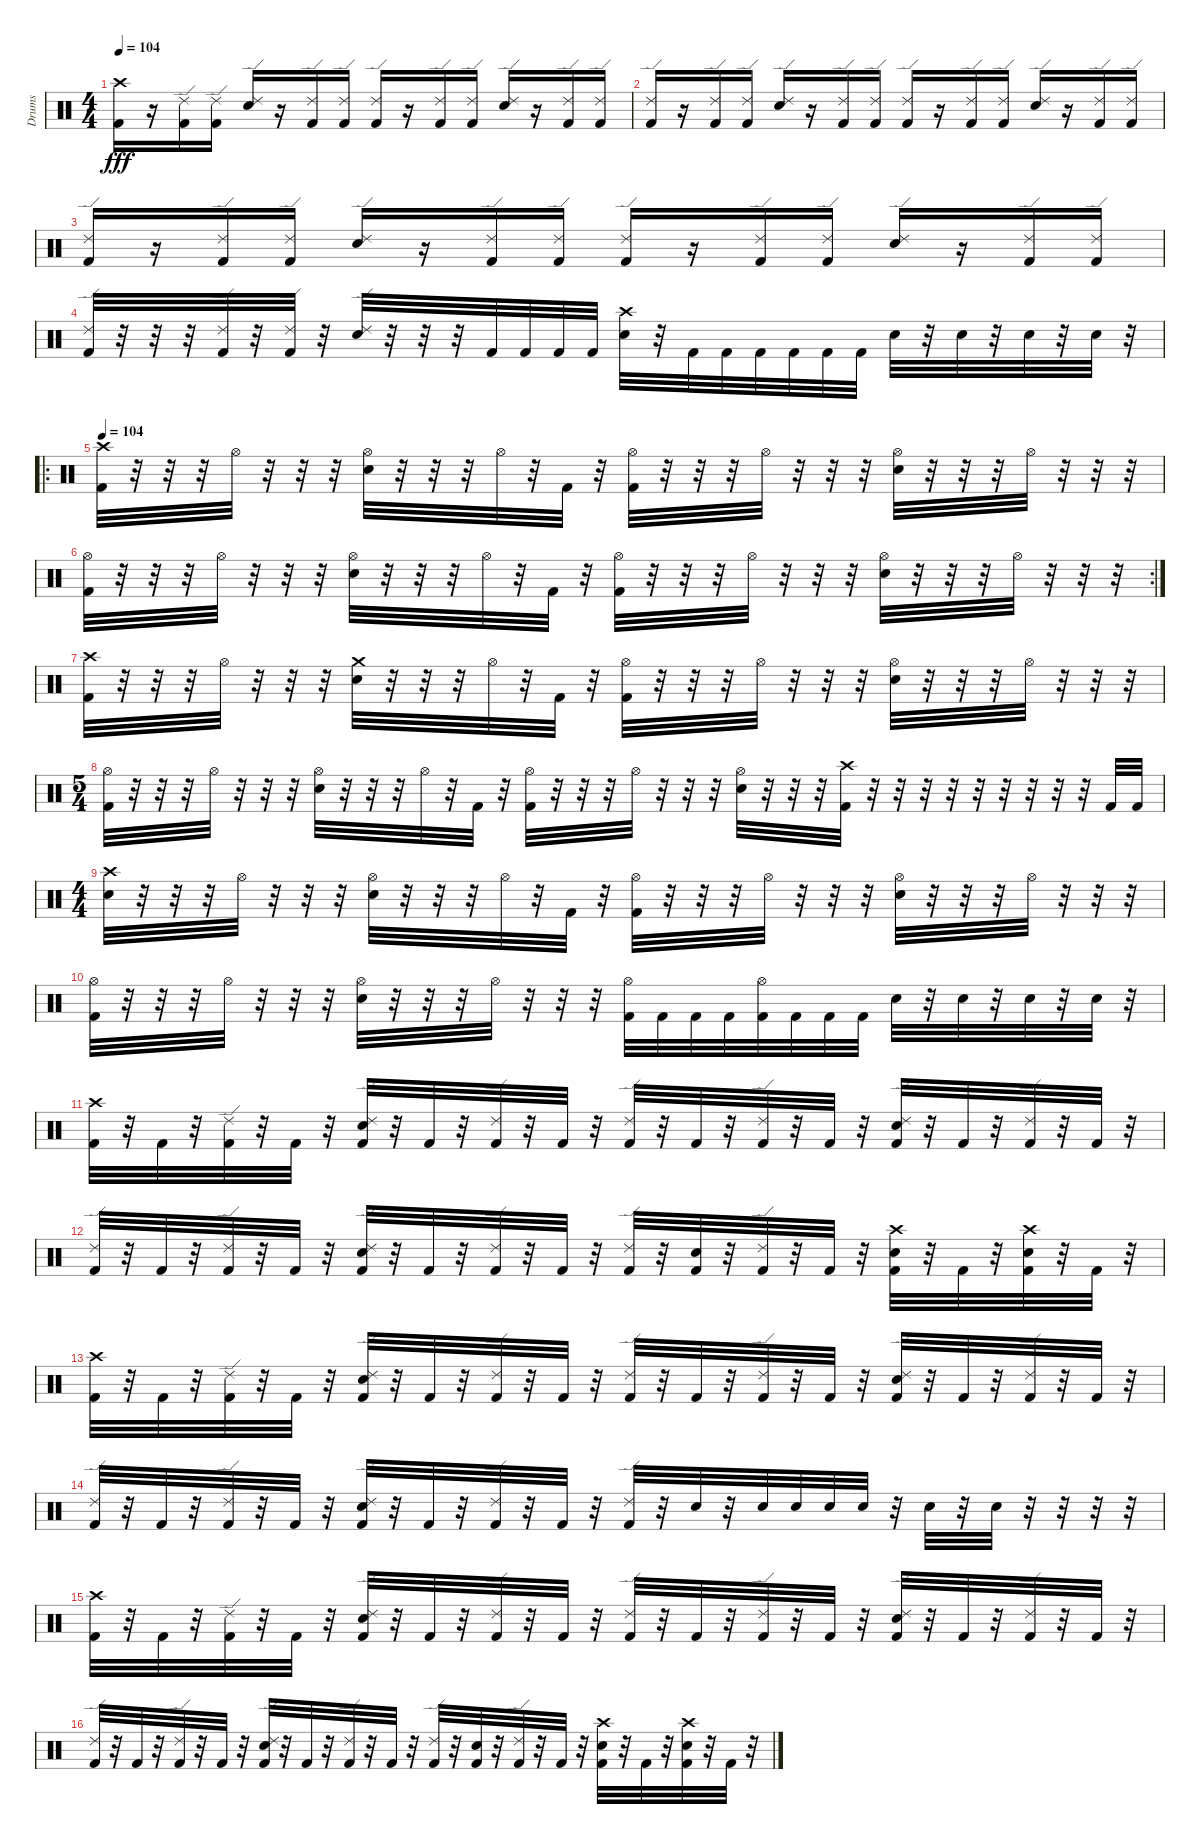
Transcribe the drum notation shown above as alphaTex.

\track ("Drums" "Drums") {instrument percussion}
\staff {score}
\articulation defaults
\ts (4 4)
\tempo 104
\clef neutral
\ks c
("Crash high (hit)" "Kick (hit) 2").16{dy fff} r.16 ("Ride (edge) 2" "Kick (hit) 2").16 ("Ride (edge) 2" "Kick (hit) 2").16 ("Ride (edge) 2" "Snare (hit) 2").16 r.16 ("Ride (edge) 2" "Kick (hit) 2").16 ("Ride (edge) 2" "Kick (hit) 2").16 ("Ride (edge) 2" "Kick (hit) 2").16 r.16 ("Ride (edge) 2" "Kick (hit) 2").16 ("Ride (edge) 2" "Kick (hit) 2").16 ("Ride (edge) 2" "Snare (hit) 2").16 r.16 ("Ride (edge) 2" "Kick (hit) 2").16 ("Ride (edge) 2" "Kick (hit) 2").16 |
("Ride (edge) 2" "Kick (hit) 2").16 r.16 ("Ride (edge) 2" "Kick (hit) 2").16 ("Ride (edge) 2" "Kick (hit) 2").16 ("Ride (edge) 2" "Snare (hit) 2").16 r.16 ("Ride (edge) 2" "Kick (hit) 2").16 ("Ride (edge) 2" "Kick (hit) 2").16 ("Ride (edge) 2" "Kick (hit) 2").16 r.16 ("Ride (edge) 2" "Kick (hit) 2").16 ("Ride (edge) 2" "Kick (hit) 2").16 ("Ride (edge) 2" "Snare (hit) 2").16 r.16 ("Ride (edge) 2" "Kick (hit) 2").16 ("Ride (edge) 2" "Kick (hit) 2").16 |
("Ride (edge) 2" "Kick (hit) 2").16 r.16 ("Ride (edge) 2" "Kick (hit) 2").16 ("Ride (edge) 2" "Kick (hit) 2").16 ("Ride (edge) 2" "Snare (hit) 2").16 r.16 ("Ride (edge) 2" "Kick (hit) 2").16 ("Ride (edge) 2" "Kick (hit) 2").16 ("Ride (edge) 2" "Kick (hit) 2").16 r.16 ("Ride (edge) 2" "Kick (hit) 2").16 ("Ride (edge) 2" "Kick (hit) 2").16 ("Ride (edge) 2" "Snare (hit) 2").16 r.16 ("Ride (edge) 2" "Kick (hit) 2").16 ("Ride (edge) 2" "Kick (hit) 2").16 |
("Ride (edge) 2" "Kick (hit) 2").32 r.32 r.32 r.32 ("Ride (edge) 2" "Kick (hit) 2").32 r.32 ("Ride (edge) 2" "Kick (hit) 2").32 r.32 ("Ride (edge) 2" "Snare (hit) 2").32 r.32 r.32 r.32 "Kick (hit) 2".32 "Kick (hit) 2".32 "Kick (hit) 2".32 "Kick (hit) 2".32 ("Crash high (hit)" "Snare (hit) 2").32 r.32 "Kick (hit) 2".32 "Kick (hit) 2".32 "Kick (hit) 2".32 "Kick (hit) 2".32 "Kick (hit) 2".32 "Kick (hit) 2".32 "Snare (hit) 2".32 r.32 "Snare (hit) 2".32 r.32 "Snare (hit) 2".32 r.32 "Snare (hit) 2".32 r.32 |
\ro
\tempo 104
("Crash high (hit)" "Kick (hit) 2").32 r.32 r.32 r.32 "Hi-Hat (open)".32 r.32 r.32 r.32 ("Hi-Hat (open)" "Snare (hit) 2").32 r.32 r.32 r.32 "Hi-Hat (open)".32 r.32 "Kick (hit) 2".32 r.32 ("Hi-Hat (open)" "Kick (hit) 2").32 r.32 r.32 r.32 "Hi-Hat (open)".32 r.32 r.32 r.32 ("Hi-Hat (open)" "Snare (hit) 2").32 r.32 r.32 r.32 "Hi-Hat (open)".32 r.32 r.32 r.32 |
\rc 2
("Hi-Hat (open)" "Kick (hit) 2").32 r.32 r.32 r.32 "Hi-Hat (open)".32 r.32 r.32 r.32 ("Hi-Hat (open)" "Snare (hit) 2").32 r.32 r.32 r.32 "Hi-Hat (open)".32 r.32 "Kick (hit) 2".32 r.32 ("Hi-Hat (open)" "Kick (hit) 2").32 r.32 r.32 r.32 "Hi-Hat (open)".32 r.32 r.32 r.32 ("Hi-Hat (open)" "Snare (hit) 2").32 r.32 r.32 r.32 "Hi-Hat (open)".32 r.32 r.32 r.32 |
("Crash high (hit)" "Kick (hit) 2").32 r.32 r.32 r.32 "Hi-Hat (open)".32 r.32 r.32 r.32 ("Crash medium (hit)" "Snare (hit) 2").32 r.32 r.32 r.32 "Hi-Hat (open)".32 r.32 "Kick (hit) 2".32 r.32 ("Hi-Hat (open)" "Kick (hit) 2").32 r.32 r.32 r.32 "Hi-Hat (open)".32 r.32 r.32 r.32 ("Hi-Hat (open)" "Snare (hit) 2").32 r.32 r.32 r.32 "Hi-Hat (open)".32 r.32 r.32 r.32 |
\ts (5 4)
("Hi-Hat (open)" "Kick (hit) 2").32 r.32 r.32 r.32 "Hi-Hat (open)".32 r.32 r.32 r.32 ("Hi-Hat (open)" "Snare (hit) 2").32 r.32 r.32 r.32 "Hi-Hat (open)".32 r.32 "Kick (hit) 2".32 r.32 ("Hi-Hat (open)" "Kick (hit) 2").32 r.32 r.32 r.32 "Hi-Hat (open)".32 r.32 r.32 r.32 ("Hi-Hat (open)" "Snare (hit) 2").32 r.32 r.32 r.32 ("Crash high (hit)" "Kick (hit) 2").32 r.32 r.32 r.32 r.32 r.32 r.32 r.32 r.32 r.32 "Kick (hit) 2".32 "Kick (hit) 2".32 |
\ts (4 4)
("Crash high (hit)" "Snare (hit) 2").32 r.32 r.32 r.32 "Hi-Hat (open)".32 r.32 r.32 r.32 ("Hi-Hat (open)" "Snare (hit) 2").32 r.32 r.32 r.32 "Hi-Hat (open)".32 r.32 "Kick (hit) 2".32 r.32 ("Hi-Hat (open)" "Kick (hit) 2").32 r.32 r.32 r.32 "Hi-Hat (open)".32 r.32 r.32 r.32 ("Hi-Hat (open)" "Snare (hit) 2").32 r.32 r.32 r.32 "Hi-Hat (open)".32 r.32 r.32 r.32 |
("Hi-Hat (open)" "Kick (hit) 2").32 r.32 r.32 r.32 "Hi-Hat (open)".32 r.32 r.32 r.32 ("Hi-Hat (open)" "Snare (hit) 2").32 r.32 r.32 r.32 "Hi-Hat (open)".32 r.32 r.32 r.32 ("Hi-Hat (open)" "Kick (hit) 2").32 "Kick (hit) 2".32 "Kick (hit) 2".32 "Kick (hit) 2".32 ("Hi-Hat (open)" "Kick (hit) 2").32 "Kick (hit) 2".32 "Kick (hit) 2".32 "Kick (hit) 2".32 "Snare (hit) 2".32 r.32 "Snare (hit) 2".32 r.32 "Snare (hit) 2".32 r.32 "Snare (hit) 2".32 r.32 |
("Crash high (hit)" "Kick (hit) 2").32 r.32 "Kick (hit) 2".32 r.32 ("Ride (edge) 2" "Kick (hit) 2").32 r.32 "Kick (hit) 2".32 r.32 ("Ride (edge) 2" "Snare (hit) 2" "Kick (hit) 2").32 r.32 "Kick (hit) 2".32 r.32 ("Ride (edge) 2" "Kick (hit) 2").32 r.32 "Kick (hit) 2".32 r.32 ("Ride (edge) 2" "Kick (hit) 2").32 r.32 "Kick (hit) 2".32 r.32 ("Ride (edge) 2" "Kick (hit) 2").32 r.32 "Kick (hit) 2".32 r.32 ("Ride (edge) 2" "Snare (hit) 2" "Kick (hit) 2").32 r.32 "Kick (hit) 2".32 r.32 ("Ride (edge) 2" "Kick (hit) 2").32 r.32 "Kick (hit) 2".32 r.32 |
("Ride (edge) 2" "Kick (hit) 2").32 r.32 "Kick (hit) 2".32 r.32 ("Ride (edge) 2" "Kick (hit) 2").32 r.32 "Kick (hit) 2".32 r.32 ("Ride (edge) 2" "Snare (hit) 2" "Kick (hit) 2").32 r.32 "Kick (hit) 2".32 r.32 ("Ride (edge) 2" "Kick (hit) 2").32 r.32 "Kick (hit) 2".32 r.32 ("Ride (edge) 2" "Kick (hit) 2").32 r.32 ("Snare (hit) 2" "Kick (hit) 2").32 r.32 ("Ride (edge) 2" "Kick (hit) 2").32 r.32 "Kick (hit) 2".32 r.32 ("Crash high (hit)" "Snare (hit) 2" "Kick (hit) 2").32 r.32 "Kick (hit) 2".32 r.32 ("Crash high (hit)" "Snare (hit) 2" "Kick (hit) 2").32 r.32 "Kick (hit) 2".32 r.32 |
("Crash high (hit)" "Kick (hit) 2").32 r.32 "Kick (hit) 2".32 r.32 ("Ride (edge) 2" "Kick (hit) 2").32 r.32 "Kick (hit) 2".32 r.32 ("Ride (edge) 2" "Snare (hit) 2" "Kick (hit) 2").32 r.32 "Kick (hit) 2".32 r.32 ("Ride (edge) 2" "Kick (hit) 2").32 r.32 "Kick (hit) 2".32 r.32 ("Ride (edge) 2" "Kick (hit) 2").32 r.32 "Kick (hit) 2".32 r.32 ("Ride (edge) 2" "Kick (hit) 2").32 r.32 "Kick (hit) 2".32 r.32 ("Ride (edge) 2" "Snare (hit) 2" "Kick (hit) 2").32 r.32 "Kick (hit) 2".32 r.32 ("Ride (edge) 2" "Kick (hit) 2").32 r.32 "Kick (hit) 2".32 r.32 |
("Ride (edge) 2" "Kick (hit) 2").32 r.32 "Kick (hit) 2".32 r.32 ("Ride (edge) 2" "Kick (hit) 2").32 r.32 "Kick (hit) 2".32 r.32 ("Ride (edge) 2" "Snare (hit) 2" "Kick (hit) 2").32 r.32 "Kick (hit) 2".32 r.32 ("Ride (edge) 2" "Kick (hit) 2").32 r.32 "Kick (hit) 2".32 r.32 ("Ride (edge) 2" "Kick (hit) 2").32 r.32 "Snare (hit) 2".32 r.32 "Snare (hit) 2".32 "Snare (hit) 2".32 "Snare (hit) 2".32 "Snare (hit) 2".32 r.32 "Snare (hit) 2".32 r.32 "Snare (hit) 2".32 r.32 r.32 r.32 r.32 |
("Crash high (hit)" "Kick (hit) 2").32 r.32 "Kick (hit) 2".32 r.32 ("Ride (edge) 2" "Kick (hit) 2").32 r.32 "Kick (hit) 2".32 r.32 ("Ride (edge) 2" "Snare (hit) 2" "Kick (hit) 2").32 r.32 "Kick (hit) 2".32 r.32 ("Ride (edge) 2" "Kick (hit) 2").32 r.32 "Kick (hit) 2".32 r.32 ("Ride (edge) 2" "Kick (hit) 2").32 r.32 "Kick (hit) 2".32 r.32 ("Ride (edge) 2" "Kick (hit) 2").32 r.32 "Kick (hit) 2".32 r.32 ("Ride (edge) 2" "Snare (hit) 2" "Kick (hit) 2").32 r.32 "Kick (hit) 2".32 r.32 ("Ride (edge) 2" "Kick (hit) 2").32 r.32 "Kick (hit) 2".32 r.32 |
("Ride (edge) 2" "Kick (hit) 2").32 r.32 "Kick (hit) 2".32 r.32 ("Ride (edge) 2" "Kick (hit) 2").32 r.32 "Kick (hit) 2".32 r.32 ("Ride (edge) 2" "Snare (hit) 2" "Kick (hit) 2").32 r.32 "Kick (hit) 2".32 r.32 ("Ride (edge) 2" "Kick (hit) 2").32 r.32 "Kick (hit) 2".32 r.32 ("Ride (edge) 2" "Kick (hit) 2").32 r.32 ("Snare (hit) 2" "Kick (hit) 2").32 r.32 ("Ride (edge) 2" "Kick (hit) 2").32 r.32 "Kick (hit) 2".32 r.32 ("Crash high (hit)" "Snare (hit) 2" "Kick (hit) 2").32 r.32 "Kick (hit) 2".32 r.32 ("Crash high (hit)" "Snare (hit) 2" "Kick (hit) 2").32 r.32 "Kick (hit) 2".32 r.32
